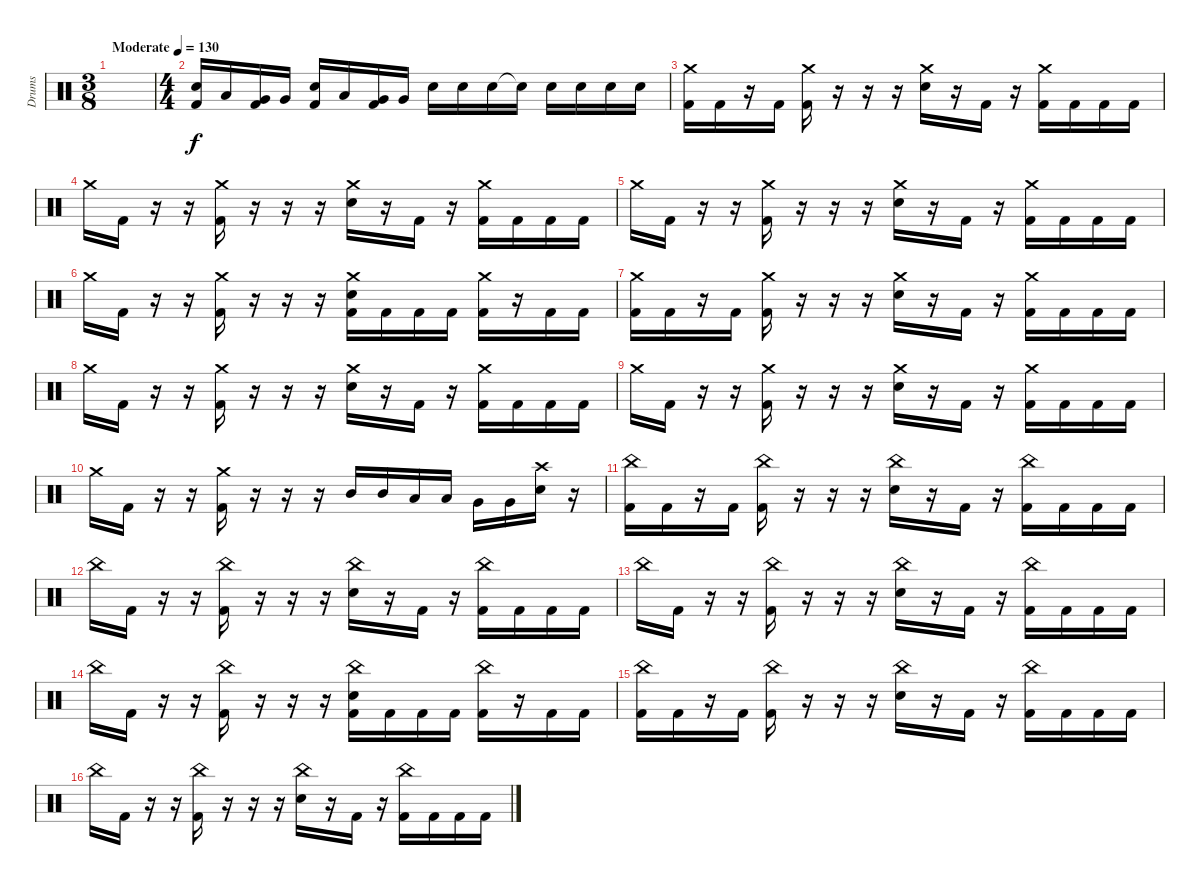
\track ("Drums" "Drums") {instrument percussion}
\staff {score}
\articulation defaults
\ts (3 8)
\tempo (130 "Moderate")
\clef neutral
\ks c
|
\ts (4 4)
("Electric Snare (hit)" "Kick (hit) 2").16 "Low Tom (hit)".16 ("Very Low Tom (hit)" "Kick (hit) 2").16 "Very Low Tom (hit)".16 ("Electric Snare (hit)" "Kick (hit) 2").16 "Low Tom (hit)".16 ("Very Low Tom (hit)" "Kick (hit) 2").16 "Very Low Tom (hit)".16 "Electric Snare (hit)".16 "Electric Snare (hit)".16 "Electric Snare (hit)".16 "Snare (hit)"{t}.16 "Electric Snare (hit)".16 "Electric Snare (hit)".16 "Electric Snare (hit)".16 "Electric Snare (hit)".16 |
("Crash medium (hit)" "Kick (hit) 2").16 "Kick (hit) 2".16 r.16 "Kick (hit) 2".16 ("Crash medium (hit)" "Kick (hit) 2").16 r.16 r.16 r.16 ("Crash medium (hit)" "Electric Snare (hit)").16 r.16 "Kick (hit) 2".16 r.16 ("Crash medium (hit)" "Kick (hit) 2").16 "Kick (hit) 2".16 "Kick (hit) 2".16 "Kick (hit) 2".16 |
"Crash medium (hit)".16 "Kick (hit) 2".16 r.16 r.16 ("Crash medium (hit)" "Kick (hit) 2").16 r.16 r.16 r.16 ("Crash medium (hit)" "Electric Snare (hit)").16 r.16 "Kick (hit) 2".16 r.16 ("Crash medium (hit)" "Kick (hit) 2").16 "Kick (hit) 2".16 "Kick (hit) 2".16 "Kick (hit) 2".16 |
"Crash medium (hit)".16 "Kick (hit) 2".16 r.16 r.16 ("Crash medium (hit)" "Kick (hit) 2").16 r.16 r.16 r.16 ("Crash medium (hit)" "Electric Snare (hit)").16 r.16 "Kick (hit) 2".16 r.16 ("Crash medium (hit)" "Kick (hit) 2").16 "Kick (hit) 2".16 "Kick (hit) 2".16 "Kick (hit) 2".16 |
"Crash medium (hit)".16 "Kick (hit) 2".16 r.16 r.16 ("Crash medium (hit)" "Kick (hit) 2").16 r.16 r.16 r.16 ("Crash medium (hit)" "Electric Snare (hit)" "Kick (hit) 2").16 "Kick (hit) 2".16 "Kick (hit) 2".16 "Kick (hit) 2".16 ("Crash medium (hit)" "Kick (hit) 2").16 r.16 "Kick (hit) 2".16 "Kick (hit) 2".16 |
("Crash medium (hit)" "Kick (hit) 2").16 "Kick (hit) 2".16 r.16 "Kick (hit) 2".16 ("Crash medium (hit)" "Kick (hit) 2").16 r.16 r.16 r.16 ("Crash medium (hit)" "Electric Snare (hit)").16 r.16 "Kick (hit) 2".16 r.16 ("Crash medium (hit)" "Kick (hit) 2").16 "Kick (hit) 2".16 "Kick (hit) 2".16 "Kick (hit) 2".16 |
"Crash medium (hit)".16 "Kick (hit) 2".16 r.16 r.16 ("Crash medium (hit)" "Kick (hit) 2").16 r.16 r.16 r.16 ("Crash medium (hit)" "Electric Snare (hit)").16 r.16 "Kick (hit) 2".16 r.16 ("Crash medium (hit)" "Kick (hit) 2").16 "Kick (hit) 2".16 "Kick (hit) 2".16 "Kick (hit) 2".16 |
"Crash medium (hit)".16 "Kick (hit) 2".16 r.16 r.16 ("Crash medium (hit)" "Kick (hit) 2").16 r.16 r.16 r.16 ("Crash medium (hit)" "Electric Snare (hit)").16 r.16 "Kick (hit) 2".16 r.16 ("Crash medium (hit)" "Kick (hit) 2").16 "Kick (hit) 2".16 "Kick (hit) 2".16 "Kick (hit) 2".16 |
"Crash medium (hit)".16 "Kick (hit) 2".16 r.16 r.16 ("Crash medium (hit)" "Kick (hit) 2").16 r.16 r.16 r.16 "Mid Tom (hit)".16 "Mid Tom (hit)".16 "Low Tom (hit)".16 "Low Tom (hit)".16 "Very Low Tom (hit)".16 "Very Low Tom (hit)".16 ("Crash high (hit)" "Electric Snare (hit)").16 r.16 |
("China (hit)" "Kick (hit) 2").16 "Kick (hit) 2".16 r.16 "Kick (hit) 2".16 ("China (hit)" "Kick (hit) 2").16 r.16 r.16 r.16 ("China (hit)" "Electric Snare (hit)").16 r.16 "Kick (hit) 2".16 r.16 ("China (hit)" "Kick (hit) 2").16 "Kick (hit) 2".16 "Kick (hit) 2".16 "Kick (hit) 2".16 |
"China (hit)".16 "Kick (hit) 2".16 r.16 r.16 ("China (hit)" "Kick (hit) 2").16 r.16 r.16 r.16 ("China (hit)" "Electric Snare (hit)").16 r.16 "Kick (hit) 2".16 r.16 ("China (hit)" "Kick (hit) 2").16 "Kick (hit) 2".16 "Kick (hit) 2".16 "Kick (hit) 2".16 |
"China (hit)".16 "Kick (hit) 2".16 r.16 r.16 ("China (hit)" "Kick (hit) 2").16 r.16 r.16 r.16 ("China (hit)" "Electric Snare (hit)").16 r.16 "Kick (hit) 2".16 r.16 ("China (hit)" "Kick (hit) 2").16 "Kick (hit) 2".16 "Kick (hit) 2".16 "Kick (hit) 2".16 |
"China (hit)".16 "Kick (hit) 2".16 r.16 r.16 ("China (hit)" "Kick (hit) 2").16 r.16 r.16 r.16 ("China (hit)" "Electric Snare (hit)" "Kick (hit) 2").16 "Kick (hit) 2".16 "Kick (hit) 2".16 "Kick (hit) 2".16 ("China (hit)" "Kick (hit) 2").16 r.16 "Kick (hit) 2".16 "Kick (hit) 2".16 |
("China (hit)" "Kick (hit) 2").16 "Kick (hit) 2".16 r.16 "Kick (hit) 2".16 ("China (hit)" "Kick (hit) 2").16 r.16 r.16 r.16 ("China (hit)" "Electric Snare (hit)").16 r.16 "Kick (hit) 2".16 r.16 ("China (hit)" "Kick (hit) 2").16 "Kick (hit) 2".16 "Kick (hit) 2".16 "Kick (hit) 2".16 |
"China (hit)".16 "Kick (hit) 2".16 r.16 r.16 ("China (hit)" "Kick (hit) 2").16 r.16 r.16 r.16 ("China (hit)" "Electric Snare (hit)").16 r.16 "Kick (hit) 2".16 r.16 ("China (hit)" "Kick (hit) 2").16 "Kick (hit) 2".16 "Kick (hit) 2".16 "Kick (hit) 2".16
